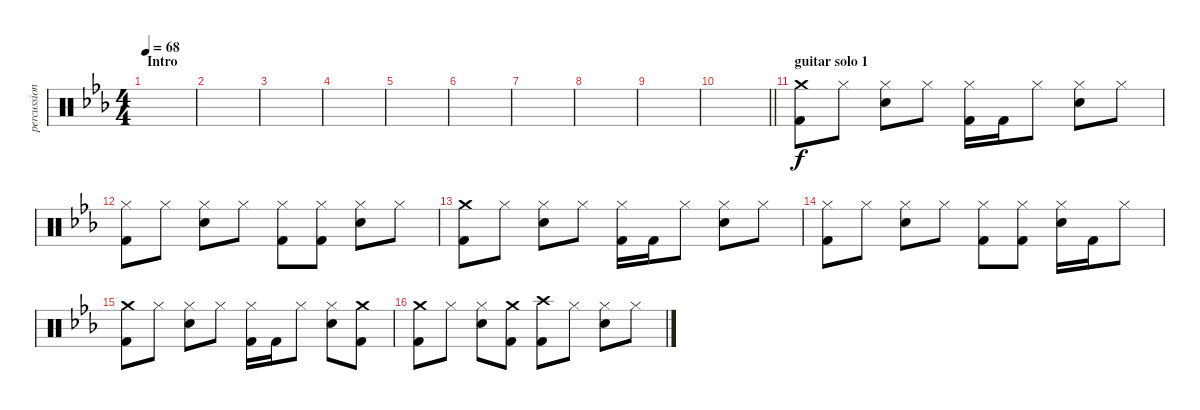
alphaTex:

\track ("percussion" "percussion") {instrument percussion}
\staff {score}
\articulation defaults
\ts (4 4)
\section ("" "Intro")
\tempo 68
\clef neutral
\ks cminor
|
|
|
|
|
|
|
|
|
\barLineRight lightlight
|
\section ("" "guitar solo 1")
("Crash medium (hit)" "Kick (hit) 2").8 "Hi-Hat (closed)".8 ("Snare (hit) 2" "Hi-Hat (closed)").8 "Hi-Hat (closed)".8 ("Hi-Hat (closed)" "Kick (hit) 2").16 "Kick (hit) 2".16 "Hi-Hat (closed)".8 ("Snare (hit) 2" "Hi-Hat (closed)").8 "Hi-Hat (closed)".8 |
("Hi-Hat (closed)" "Kick (hit) 2").8 "Hi-Hat (closed)".8 ("Snare (hit) 2" "Hi-Hat (closed)").8 "Hi-Hat (closed)".8 ("Hi-Hat (closed)" "Kick (hit) 2").8 ("Hi-Hat (closed)" "Kick (hit) 2").8 ("Snare (hit) 2" "Hi-Hat (closed)").8 "Hi-Hat (closed)".8 |
("Crash medium (hit)" "Kick (hit) 2").8 "Hi-Hat (closed)".8 ("Snare (hit) 2" "Hi-Hat (closed)").8 "Hi-Hat (closed)".8 ("Hi-Hat (closed)" "Kick (hit) 2").16 "Kick (hit) 2".16 "Hi-Hat (closed)".8 ("Snare (hit) 2" "Hi-Hat (closed)").8 "Hi-Hat (closed)".8 |
("Hi-Hat (closed)" "Kick (hit) 2").8 "Hi-Hat (closed)".8 ("Snare (hit) 2" "Hi-Hat (closed)").8 "Hi-Hat (closed)".8 ("Hi-Hat (closed)" "Kick (hit) 2").8 ("Hi-Hat (closed)" "Kick (hit) 2").8 ("Snare (hit) 2" "Hi-Hat (closed)").16 "Kick (hit) 2".16 "Hi-Hat (closed)".8 |
("Crash medium (hit)" "Kick (hit) 2").8 "Hi-Hat (closed)".8 ("Snare (hit) 2" "Hi-Hat (closed)").8 "Hi-Hat (closed)".8 ("Hi-Hat (closed)" "Kick (hit) 2").16 "Kick (hit) 2".16 "Hi-Hat (closed)".8 ("Snare (hit) 2" "Hi-Hat (closed)").8 ("Crash medium (hit)" "Kick (hit) 2").8 |
("Crash medium (hit)" "Kick (hit) 2").8 "Hi-Hat (closed)".8 ("Snare (hit) 2" "Hi-Hat (closed)").8 ("Crash medium (hit)" "Kick (hit) 2").8 ("Crash high (hit)" "Kick (hit) 2").8 "Hi-Hat (closed)".8 ("Snare (hit) 2" "Hi-Hat (closed)").8 "Hi-Hat (closed)".8
